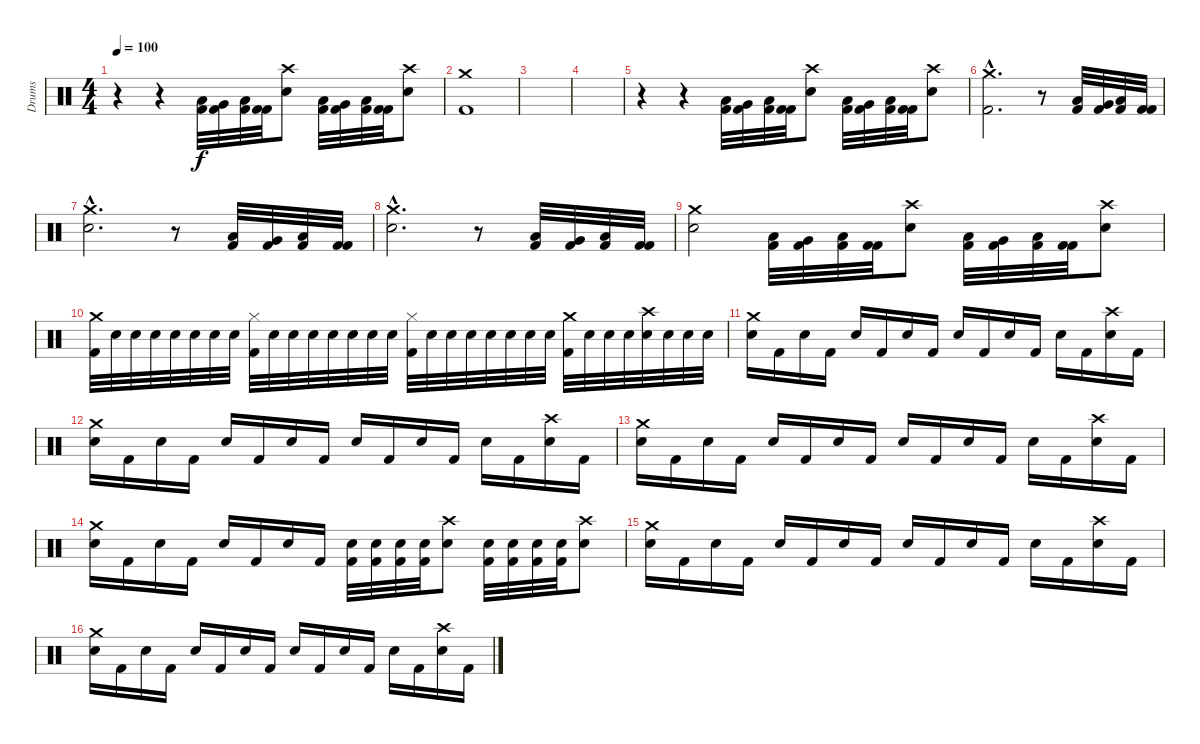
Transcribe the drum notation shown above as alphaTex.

\track ("Drums" "Drums") {instrument percussion}
\staff {score}
\articulation defaults
\ts (4 4)
\tempo 100
\clef neutral
\ks c
r.4{dy f} r.4 ("Low Tom (hit)" "Kick (hit) 2").32 ("Very Low Tom (hit)" "Kick (hit) 2").32 ("Low Floor Tom (hit)" "Kick (hit) 2").32 ("Kick (hit) 2" "Kick (hit) 2").32 ("Crash high (hit)" "Electric Snare (hit)").8 ("Low Tom (hit)" "Kick (hit) 2").32 ("Very Low Tom (hit)" "Kick (hit) 2").32 ("Low Floor Tom (hit)" "Kick (hit) 2").32 ("Kick (hit) 2" "Kick (hit) 2").32 ("Crash high (hit)" "Electric Snare (hit)").8 |
("Crash medium (hit)" "Kick (hit) 2").1 |
|
|
r.4 r.4 ("Low Tom (hit)" "Kick (hit) 2").32 ("Very Low Tom (hit)" "Kick (hit) 2").32 ("Low Floor Tom (hit)" "Kick (hit) 2").32 ("Kick (hit) 2" "Kick (hit) 2").32 ("Crash high (hit)" "Electric Snare (hit)").8 ("Low Tom (hit)" "Kick (hit) 2").32 ("Very Low Tom (hit)" "Kick (hit) 2").32 ("Low Floor Tom (hit)" "Kick (hit) 2").32 ("Kick (hit) 2" "Kick (hit) 2").32 ("Crash high (hit)" "Electric Snare (hit)").8 |
("Crash medium (hit)"{hac} "Kick (hit) 2"{hac}).2{d} r.8 ("Low Tom (hit)" "Kick (hit) 2").32 ("Very Low Tom (hit)" "Kick (hit) 2").32 ("Low Floor Tom (hit)" "Kick (hit) 2").32 ("Kick (hit) 2" "Kick (hit) 2").32 |
("Crash medium (hit)"{hac} "Electric Snare (hit)"{hac}).2{d} r.8 ("Low Tom (hit)" "Kick (hit) 2").32 ("Very Low Tom (hit)" "Kick (hit) 2").32 ("Low Floor Tom (hit)" "Kick (hit) 2").32 ("Kick (hit) 2" "Kick (hit) 2").32 |
("Crash medium (hit)"{hac} "Electric Snare (hit)"{hac}).2{d} r.8 ("Low Tom (hit)" "Kick (hit) 2").32 ("Very Low Tom (hit)" "Kick (hit) 2").32 ("Low Floor Tom (hit)" "Kick (hit) 2").32 ("Kick (hit) 2" "Kick (hit) 2").32 |
("Crash medium (hit)" "Electric Snare (hit)").2 ("Low Tom (hit)" "Kick (hit) 2").32 ("Very Low Tom (hit)" "Kick (hit) 2").32 ("Low Floor Tom (hit)" "Kick (hit) 2").32 ("Kick (hit) 2" "Kick (hit) 2").32 ("Crash high (hit)" "Electric Snare (hit)").8 ("Low Tom (hit)" "Kick (hit) 2").32 ("Very Low Tom (hit)" "Kick (hit) 2").32 ("Low Floor Tom (hit)" "Kick (hit) 2").32 ("Kick (hit) 2" "Kick (hit) 2").32 ("Crash high (hit)" "Electric Snare (hit)").8 |
("Crash medium (hit)" "Kick (hit) 2").32 "Electric Snare (hit)".32 "Electric Snare (hit)".32 "Electric Snare (hit)".32 "Electric Snare (hit)".32 "Electric Snare (hit)".32 "Electric Snare (hit)".32 "Electric Snare (hit)".32 ("Hi-Hat (closed)" "Kick (hit) 2").32 "Electric Snare (hit)".32 "Electric Snare (hit)".32 "Electric Snare (hit)".32 "Electric Snare (hit)".32 "Electric Snare (hit)".32 "Electric Snare (hit)".32 "Electric Snare (hit)".32 ("Hi-Hat (closed)" "Kick (hit) 2").32 "Electric Snare (hit)".32 "Electric Snare (hit)".32 "Electric Snare (hit)".32 "Electric Snare (hit)".32 "Electric Snare (hit)".32 "Electric Snare (hit)".32 "Electric Snare (hit)".32 ("Crash medium (hit)" "Kick (hit) 2").32 "Electric Snare (hit)".32 "Electric Snare (hit)".32 "Electric Snare (hit)".32 ("Crash high (hit)" "Electric Snare (hit)").32 "Electric Snare (hit)".32 "Electric Snare (hit)".32 "Electric Snare (hit)".32 |
("Crash medium (hit)" "Electric Snare (hit)").16 "Kick (hit) 2".16 "Electric Snare (hit)".16 "Kick (hit) 2".16 "Electric Snare (hit)".16 "Kick (hit) 2".16 "Electric Snare (hit)".16 "Kick (hit) 2".16 "Electric Snare (hit)".16 "Kick (hit) 2".16 "Electric Snare (hit)".16 "Kick (hit) 2".16 "Electric Snare (hit)".16 "Kick (hit) 2".16 ("Crash high (hit)" "Electric Snare (hit)").16 "Kick (hit) 2".16 |
("Crash medium (hit)" "Electric Snare (hit)").16 "Kick (hit) 2".16 "Electric Snare (hit)".16 "Kick (hit) 2".16 "Electric Snare (hit)".16 "Kick (hit) 2".16 "Electric Snare (hit)".16 "Kick (hit) 2".16 "Electric Snare (hit)".16 "Kick (hit) 2".16 "Electric Snare (hit)".16 "Kick (hit) 2".16 "Electric Snare (hit)".16 "Kick (hit) 2".16 ("Crash high (hit)" "Electric Snare (hit)").16 "Kick (hit) 2".16 |
("Crash medium (hit)" "Electric Snare (hit)").16 "Kick (hit) 2".16 "Electric Snare (hit)".16 "Kick (hit) 2".16 "Electric Snare (hit)".16 "Kick (hit) 2".16 "Electric Snare (hit)".16 "Kick (hit) 2".16 "Electric Snare (hit)".16 "Kick (hit) 2".16 "Electric Snare (hit)".16 "Kick (hit) 2".16 "Electric Snare (hit)".16 "Kick (hit) 2".16 ("Crash high (hit)" "Electric Snare (hit)").16 "Kick (hit) 2".16 |
("Crash medium (hit)" "Electric Snare (hit)").16 "Kick (hit) 2".16 "Electric Snare (hit)".16 "Kick (hit) 2".16 "Electric Snare (hit)".16 "Kick (hit) 2".16 "Electric Snare (hit)".16 "Kick (hit) 2".16 ("Electric Snare (hit)" "Kick (hit) 2").32 ("Electric Snare (hit)" "Kick (hit) 2").32 ("Electric Snare (hit)" "Kick (hit) 2").32 ("Electric Snare (hit)" "Kick (hit) 2").32 ("Crash high (hit)" "Electric Snare (hit)").8 ("Electric Snare (hit)" "Kick (hit) 2").32 ("Electric Snare (hit)" "Kick (hit) 2").32 ("Electric Snare (hit)" "Kick (hit) 2").32 ("Electric Snare (hit)" "Kick (hit) 2").32 ("Crash high (hit)" "Electric Snare (hit)").8 |
("Crash medium (hit)" "Electric Snare (hit)").16 "Kick (hit) 2".16 "Electric Snare (hit)".16 "Kick (hit) 2".16 "Electric Snare (hit)".16 "Kick (hit) 2".16 "Electric Snare (hit)".16 "Kick (hit) 2".16 "Electric Snare (hit)".16 "Kick (hit) 2".16 "Electric Snare (hit)".16 "Kick (hit) 2".16 "Electric Snare (hit)".16 "Kick (hit) 2".16 ("Crash high (hit)" "Electric Snare (hit)").16 "Kick (hit) 2".16 |
("Crash medium (hit)" "Electric Snare (hit)").16 "Kick (hit) 2".16 "Electric Snare (hit)".16 "Kick (hit) 2".16 "Electric Snare (hit)".16 "Kick (hit) 2".16 "Electric Snare (hit)".16 "Kick (hit) 2".16 "Electric Snare (hit)".16 "Kick (hit) 2".16 "Electric Snare (hit)".16 "Kick (hit) 2".16 "Electric Snare (hit)".16 "Kick (hit) 2".16 ("Crash high (hit)" "Electric Snare (hit)").16 "Kick (hit) 2".16
